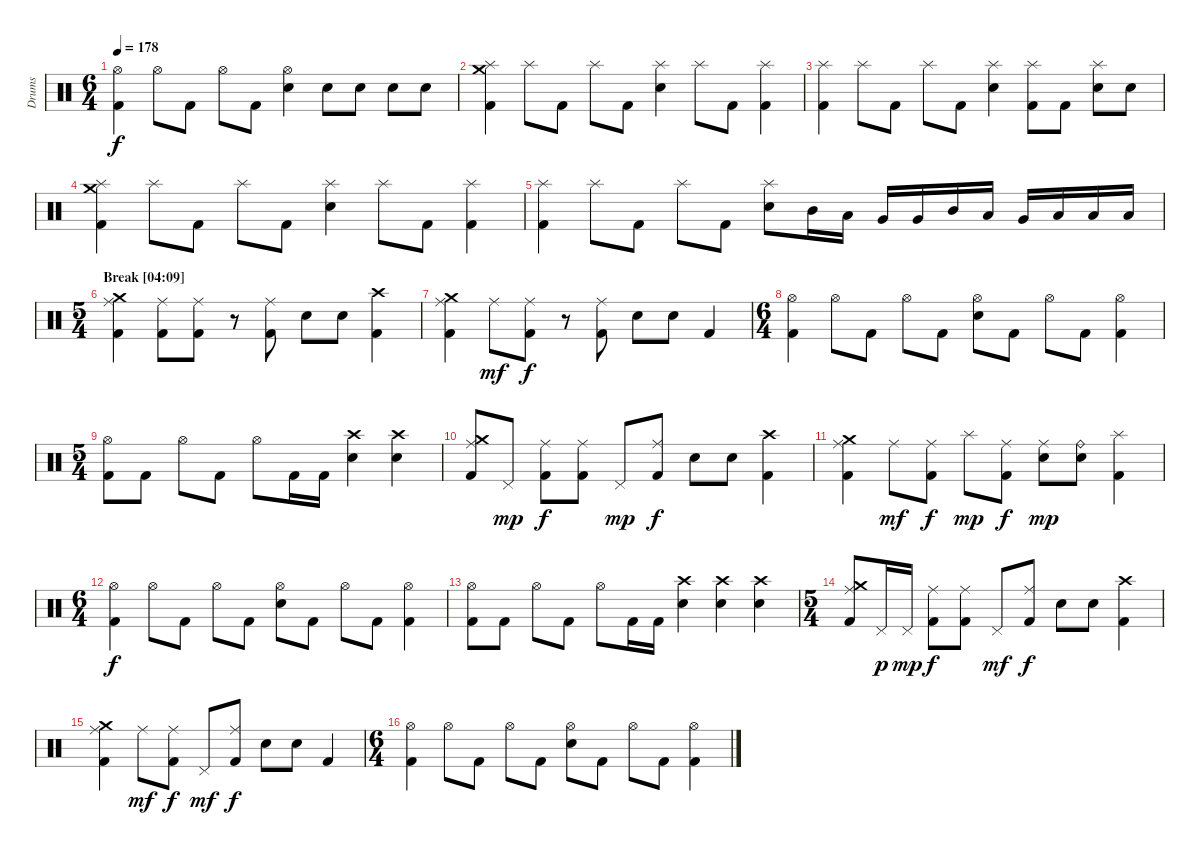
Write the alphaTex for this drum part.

\track ("Drums" "Drums") {instrument percussion}
\staff {score}
\articulation defaults
\ts (6 4)
\tempo 178
\clef neutral
\ks c
("Hi-Hat (open)" "Kick (hit) 2").4{dy f} "Hi-Hat (open)".8 "Kick (hit) 2".8 "Hi-Hat (open)".8 "Kick (hit) 2".8 ("Hi-Hat (open)" "Electric Snare (hit)").4 "Electric Snare (hit)".8 "Electric Snare (hit)".8 "Electric Snare (hit)".8 "Electric Snare (hit)".8 |
\section ("" "")
("Splash (hit)" "Crash medium (hit)" "Kick (hit) 2").4 "Splash (hit)".8 "Kick (hit) 2".8 "Splash (hit)".8 "Kick (hit) 2".8 ("Splash (hit)" "Electric Snare (hit)").4 "Splash (hit)".8 "Kick (hit) 2".8 ("Splash (hit)" "Kick (hit) 2").4 |
("Splash (hit)" "Kick (hit) 2").4 "Splash (hit)".8 "Kick (hit) 2".8 "Splash (hit)".8 "Kick (hit) 2".8 ("Splash (hit)" "Electric Snare (hit)").4 ("Splash (hit)" "Kick (hit) 2").8 "Kick (hit) 2".8 ("Splash (hit)" "Electric Snare (hit)").8 "Electric Snare (hit)".8 |
("Splash (hit)" "Crash medium (hit)" "Kick (hit) 2").4 "Splash (hit)".8 "Kick (hit) 2".8 "Splash (hit)".8 "Kick (hit) 2".8 ("Splash (hit)" "Electric Snare (hit)").4 "Splash (hit)".8 "Kick (hit) 2".8 ("Splash (hit)" "Kick (hit) 2").4 |
("Splash (hit)" "Kick (hit) 2").4 "Splash (hit)".8 "Kick (hit) 2".8 "Splash (hit)".8 "Kick (hit) 2".8 ("Splash (hit)" "Electric Snare (hit)").8 "Mid Tom (hit)".16 "Low Tom (hit)".16 "Very Low Tom (hit)".16 "Very Low Tom (hit)".16 "Mid Tom (hit)".16 "Low Tom (hit)".16 "Very Low Tom (hit)".16 "Low Tom (hit)".16 "Low Tom (hit)".16 "Low Tom (hit)".16 |
\ts (5 4)
\section ("" "Break [04:09]")
("Ride (middle)" "Crash medium (hit)" "Kick (hit) 2").4 ("Ride (middle)" "Kick (hit) 2").8 ("Ride (middle)" "Kick (hit) 2").8 r.8 ("Ride (middle)" "Kick (hit) 2").8 "Electric Snare (hit)".8 "Electric Snare (hit)".8 ("Crash high (hit)" "Kick (hit) 2").4 |
("Ride (middle)" "Crash medium (hit)" "Kick (hit) 2").4 "Ride (middle)".8{dy mf} ("Ride (middle)" "Kick (hit) 2").8{dy f} r.8 ("Ride (middle)" "Kick (hit) 2").8 "Electric Snare (hit)".8 "Electric Snare (hit)".8 "Kick (hit) 2".4 |
\ts (6 4)
("Hi-Hat (open)" "Kick (hit) 2").4 "Hi-Hat (open)".8 "Kick (hit) 2".8 "Hi-Hat (open)".8 "Kick (hit) 2".8 ("Hi-Hat (open)" "Electric Snare (hit)").8 "Kick (hit) 2".8 "Hi-Hat (open)".8 "Kick (hit) 2".8 ("Hi-Hat (open)" "Kick (hit) 2").4 |
\ts (5 4)
("Hi-Hat (open)" "Kick (hit) 2").8 "Kick (hit) 2".8 "Hi-Hat (open)".8 "Kick (hit) 2".8 "Hi-Hat (open)".8 "Kick (hit) 2".16 "Kick (hit) 2".16 ("Crash high (hit)" "Electric Snare (hit)").4 ("Crash high (hit)" "Electric Snare (hit)").4 |
\section ("" "")
("Ride (middle)" "Crash medium (hit)" "Kick (hit) 2").8 "Pedal Hi-Hat (hit)".8{dy mp} ("Ride (middle)" "Kick (hit) 2").8{dy f} ("Ride (middle)" "Kick (hit) 2").8 "Pedal Hi-Hat (hit)".8{dy mp} ("Ride (middle)" "Kick (hit) 2").8{dy f} "Electric Snare (hit)".8 "Electric Snare (hit)".8 ("Crash high (hit)" "Kick (hit) 2").4 |
("Ride (middle)" "Crash medium (hit)" "Kick (hit) 2").4 "Ride (middle)".8{dy mf} ("Ride (middle)" "Kick (hit) 2").8{dy f} "Splash (hit)".8{dy mp} ("Ride (middle)" "Kick (hit) 2").8{dy f} ("Ride (middle)" "Electric Snare (hit)").8{dy mp} ("Ride (bell)" "Electric Snare (hit)").8 ("Splash (hit)" "Kick (hit) 2").4 |
\ts (6 4)
("Hi-Hat (open)" "Kick (hit) 2").4{dy f} "Hi-Hat (open)".8 "Kick (hit) 2".8 "Hi-Hat (open)".8 "Kick (hit) 2".8 ("Hi-Hat (open)" "Electric Snare (hit)").8 "Kick (hit) 2".8 "Hi-Hat (open)".8 "Kick (hit) 2".8 ("Hi-Hat (open)" "Kick (hit) 2").4 |
("Hi-Hat (open)" "Kick (hit) 2").8 "Kick (hit) 2".8 "Hi-Hat (open)".8 "Kick (hit) 2".8 "Hi-Hat (open)".8 "Kick (hit) 2".16 "Kick (hit) 2".16 ("Crash high (hit)" "Electric Snare (hit)").4 ("Crash high (hit)" "Electric Snare (hit)").4 ("Crash high (hit)" "Electric Snare (hit)").4 |
\ts (5 4)
\section ("" "")
("Ride (middle)" "Crash medium (hit)" "Kick (hit) 2").8 "Pedal Hi-Hat (hit)".16{dy p} "Pedal Hi-Hat (hit)".16{dy mp} ("Ride (middle)" "Kick (hit) 2").8{dy f} ("Ride (middle)" "Kick (hit) 2").8 "Pedal Hi-Hat (hit)".8{dy mf} ("Ride (middle)" "Kick (hit) 2").8{dy f} "Electric Snare (hit)".8 "Electric Snare (hit)".8 ("Crash high (hit)" "Kick (hit) 2").4 |
("Ride (middle)" "Crash medium (hit)" "Kick (hit) 2").4 "Ride (middle)".8{dy mf} ("Ride (middle)" "Kick (hit) 2").8{dy f} "Pedal Hi-Hat (hit)".8{dy mf} ("Ride (middle)" "Kick (hit) 2").8{dy f} "Electric Snare (hit)".8 "Electric Snare (hit)".8 "Kick (hit) 2".4 |
\ts (6 4)
("Hi-Hat (open)" "Kick (hit) 2").4 "Hi-Hat (open)".8 "Kick (hit) 2".8 "Hi-Hat (open)".8 "Kick (hit) 2".8 ("Hi-Hat (open)" "Electric Snare (hit)").8 "Kick (hit) 2".8 "Hi-Hat (open)".8 "Kick (hit) 2".8 ("Hi-Hat (open)" "Kick (hit) 2").4
